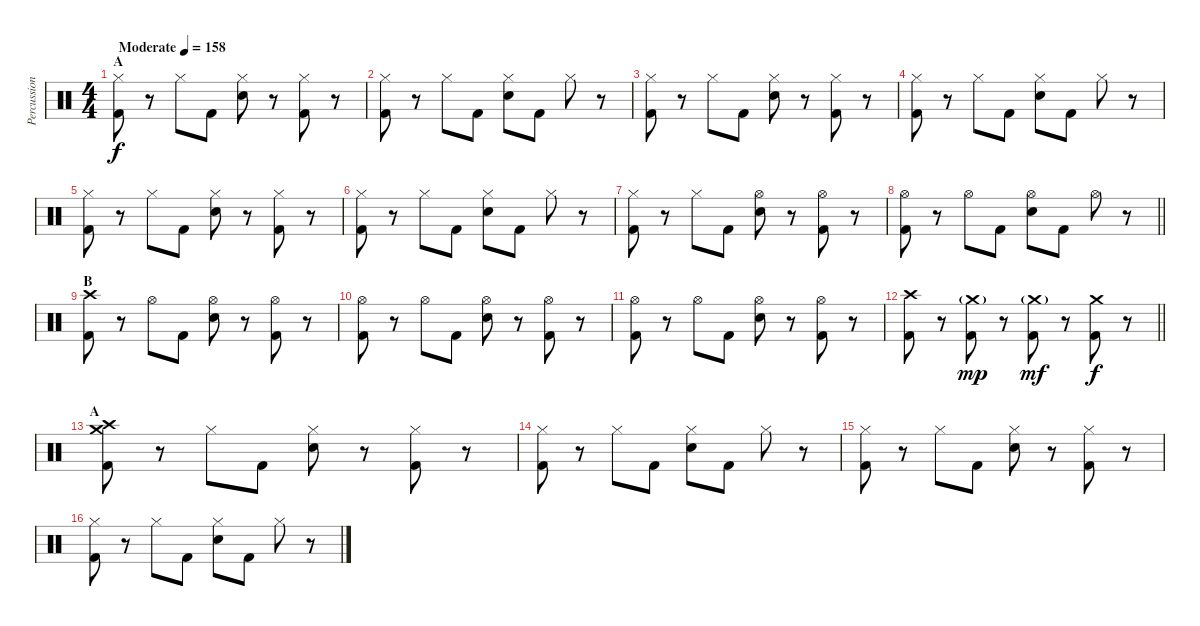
\track ("Percussion" "Percussion") {instrument percussion}
\staff {score}
\articulation defaults
\ts (4 4)
\section ("" "A")
\tempo (158 "Moderate")
\clef neutral
\ks c
("Hi-Hat (closed)" "Kick (hit) 2").8{dy f} r.8 "Hi-Hat (closed)".8 "Kick (hit) 2".8 ("Hi-Hat (closed)" "Snare (hit) 2").8 r.8 ("Hi-Hat (closed)" "Kick (hit) 2").8 r.8 |
("Hi-Hat (closed)" "Kick (hit) 2").8 r.8 "Hi-Hat (closed)".8 "Kick (hit) 2".8 ("Hi-Hat (closed)" "Snare (hit) 2").8 "Kick (hit) 2".8 "Hi-Hat (closed)".8 r.8 |
("Hi-Hat (closed)" "Kick (hit) 2").8 r.8 "Hi-Hat (closed)".8 "Kick (hit) 2".8 ("Hi-Hat (closed)" "Snare (hit) 2").8 r.8 ("Hi-Hat (closed)" "Kick (hit) 2").8 r.8 |
("Hi-Hat (closed)" "Kick (hit) 2").8 r.8 "Hi-Hat (closed)".8 "Kick (hit) 2".8 ("Hi-Hat (closed)" "Snare (hit) 2").8 "Kick (hit) 2".8 "Hi-Hat (closed)".8 r.8 |
("Hi-Hat (closed)" "Kick (hit) 2").8 r.8 "Hi-Hat (closed)".8 "Kick (hit) 2".8 ("Hi-Hat (closed)" "Snare (hit) 2").8 r.8 ("Hi-Hat (closed)" "Kick (hit) 2").8 r.8 |
("Hi-Hat (closed)" "Kick (hit) 2").8 r.8 "Hi-Hat (closed)".8 "Kick (hit) 2".8 ("Hi-Hat (closed)" "Snare (hit) 2").8 "Kick (hit) 2".8 "Hi-Hat (closed)".8 r.8 |
("Hi-Hat (closed)" "Kick (hit) 2").8 r.8 "Hi-Hat (closed)".8 "Kick (hit) 2".8 ("Hi-Hat (open)" "Snare (hit) 2").8 r.8 ("Hi-Hat (open)" "Kick (hit) 2").8 r.8 |
\barLineRight lightlight
("Hi-Hat (open)" "Kick (hit) 2").8 r.8 "Hi-Hat (open)".8 "Kick (hit) 2".8 ("Hi-Hat (open)" "Snare (hit) 2").8 "Kick (hit) 2".8 "Hi-Hat (open)".8 r.8 |
\section ("" "B")
("Crash high (hit)" "Kick (hit) 2").8 r.8 "Hi-Hat (open)".8 "Kick (hit) 2".8 ("Hi-Hat (open)" "Snare (hit) 2").8 r.8 ("Hi-Hat (open)" "Kick (hit) 2").8 r.8 |
("Hi-Hat (open)" "Kick (hit) 2").8 r.8 "Hi-Hat (open)".8 "Kick (hit) 2".8 ("Hi-Hat (open)" "Snare (hit) 2").8 r.8 ("Hi-Hat (open)" "Kick (hit) 2").8 r.8 |
("Hi-Hat (open)" "Kick (hit) 2").8 r.8 "Hi-Hat (open)".8 "Kick (hit) 2".8 ("Hi-Hat (open)" "Snare (hit) 2").8 r.8 ("Hi-Hat (open)" "Kick (hit) 2").8 r.8 |
\barLineRight lightlight
("Crash high (hit)" "Kick (hit) 2").8 r.8 ("Crash medium (hit)"{g} "Kick (hit) 2").8{dy mp} r.8 ("Crash medium (hit)"{g} "Kick (hit) 2").8{dy mf} r.8 ("Crash medium (hit)" "Kick (hit) 2").8{dy f} r.8 |
\section ("" "A")
("Crash high (hit)" "Crash medium (hit)" "Kick (hit) 2").8 r.8 "Hi-Hat (closed)".8 "Kick (hit) 2".8 ("Hi-Hat (closed)" "Snare (hit) 2").8 r.8 ("Hi-Hat (closed)" "Kick (hit) 2").8 r.8 |
("Hi-Hat (closed)" "Kick (hit) 2").8 r.8 "Hi-Hat (closed)".8 "Kick (hit) 2".8 ("Hi-Hat (closed)" "Snare (hit) 2").8 "Kick (hit) 2".8 "Hi-Hat (closed)".8 r.8 |
("Hi-Hat (closed)" "Kick (hit) 2").8 r.8 "Hi-Hat (closed)".8 "Kick (hit) 2".8 ("Hi-Hat (closed)" "Snare (hit) 2").8 r.8 ("Hi-Hat (closed)" "Kick (hit) 2").8 r.8 |
("Hi-Hat (closed)" "Kick (hit) 2").8 r.8 "Hi-Hat (closed)".8 "Kick (hit) 2".8 ("Hi-Hat (closed)" "Snare (hit) 2").8 "Kick (hit) 2".8 "Hi-Hat (closed)".8 r.8
